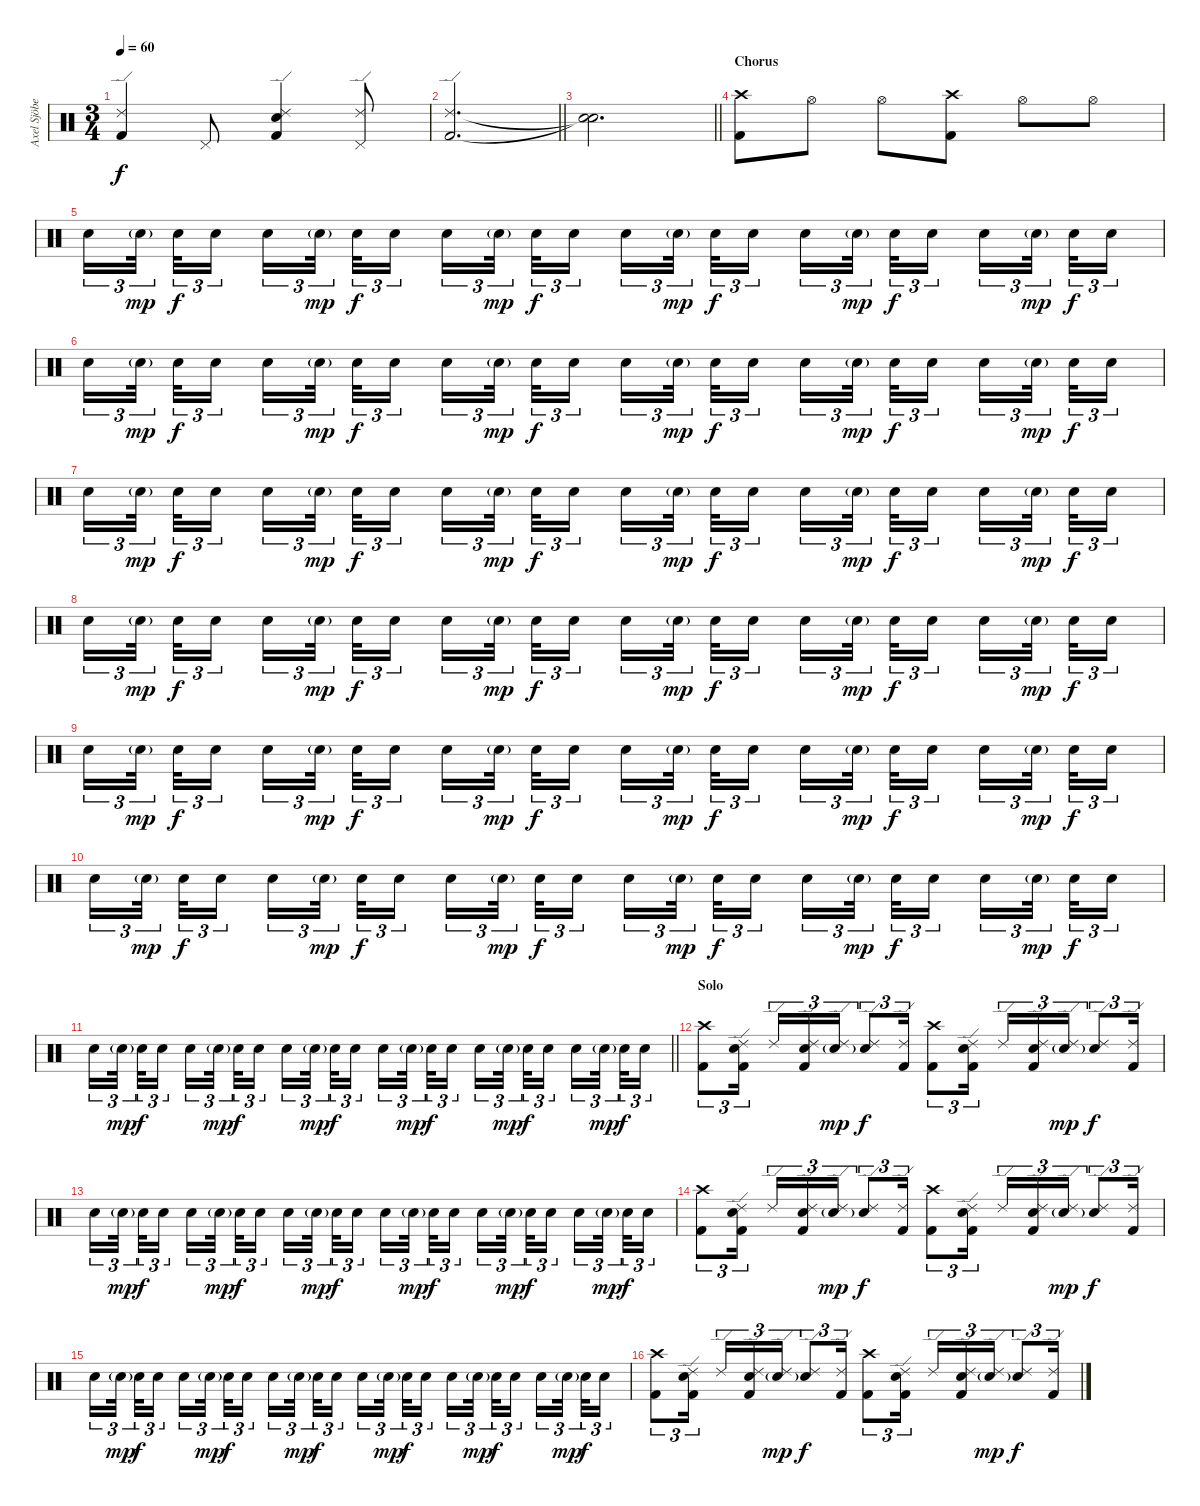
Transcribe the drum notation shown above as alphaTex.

\track ("Axel Sjöberg " "Axel Sjöbe") {instrument percussion}
\staff {score}
\articulation defaults
\ts (3 4)
\tempo 60
\clef neutral
\ks c
("Kick (hit) 2" "Ride (edge) 2").4{dy f} "Pedal Hi-Hat (hit)".8 ("Kick (hit) 2" "Snare (hit) 2" "Ride (edge) 2").4 ("Ride (edge) 2" "Pedal Hi-Hat (hit)").8 |
\barLineRight lightlight
("Kick (hit) 2" "Ride (edge) 2").2{d} |
\barLineRight lightlight
("Snare (hit)"{t} "Snare (hit)"{t}).2{d} |
\section ("" "Chorus")
("Kick (hit) 2" "Crash high (hit)").8 "Hi-Hat (open)".8 "Hi-Hat (open)".8 ("Kick (hit) 2" "Crash high (hit)").8 "Hi-Hat (open)".8 "Hi-Hat (open)".8 |
"Snare (hit) 2".16{tu (3 2)} "Snare (hit) 2"{g}.32{tu (3 2) dy mp beam splitsecondary} "Snare (hit) 2".32{tu (3 2) dy f} "Snare (hit) 2".16{tu (3 2) beam splitsecondary} "Snare (hit) 2".16{tu (3 2)} "Snare (hit) 2"{g}.32{tu (3 2) dy mp beam splitsecondary} "Snare (hit) 2".32{tu (3 2) dy f} "Snare (hit) 2".16{tu (3 2)} "Snare (hit) 2".16{tu (3 2)} "Snare (hit) 2"{g}.32{tu (3 2) dy mp beam splitsecondary} "Snare (hit) 2".32{tu (3 2) dy f} "Snare (hit) 2".16{tu (3 2) beam splitsecondary} "Snare (hit) 2".16{tu (3 2)} "Snare (hit) 2"{g}.32{tu (3 2) dy mp beam splitsecondary} "Snare (hit) 2".32{tu (3 2) dy f} "Snare (hit) 2".16{tu (3 2)} "Snare (hit) 2".16{tu (3 2)} "Snare (hit) 2"{g}.32{tu (3 2) dy mp beam splitsecondary} "Snare (hit) 2".32{tu (3 2) dy f} "Snare (hit) 2".16{tu (3 2) beam splitsecondary} "Snare (hit) 2".16{tu (3 2)} "Snare (hit) 2"{g}.32{tu (3 2) dy mp beam splitsecondary} "Snare (hit) 2".32{tu (3 2) dy f} "Snare (hit) 2".16{tu (3 2)} |
"Snare (hit) 2".16{tu (3 2)} "Snare (hit) 2"{g}.32{tu (3 2) dy mp beam splitsecondary} "Snare (hit) 2".32{tu (3 2) dy f} "Snare (hit) 2".16{tu (3 2) beam splitsecondary} "Snare (hit) 2".16{tu (3 2)} "Snare (hit) 2"{g}.32{tu (3 2) dy mp beam splitsecondary} "Snare (hit) 2".32{tu (3 2) dy f} "Snare (hit) 2".16{tu (3 2)} "Snare (hit) 2".16{tu (3 2)} "Snare (hit) 2"{g}.32{tu (3 2) dy mp beam splitsecondary} "Snare (hit) 2".32{tu (3 2) dy f} "Snare (hit) 2".16{tu (3 2) beam splitsecondary} "Snare (hit) 2".16{tu (3 2)} "Snare (hit) 2"{g}.32{tu (3 2) dy mp beam splitsecondary} "Snare (hit) 2".32{tu (3 2) dy f} "Snare (hit) 2".16{tu (3 2)} "Snare (hit) 2".16{tu (3 2)} "Snare (hit) 2"{g}.32{tu (3 2) dy mp beam splitsecondary} "Snare (hit) 2".32{tu (3 2) dy f} "Snare (hit) 2".16{tu (3 2) beam splitsecondary} "Snare (hit) 2".16{tu (3 2)} "Snare (hit) 2"{g}.32{tu (3 2) dy mp beam splitsecondary} "Snare (hit) 2".32{tu (3 2) dy f} "Snare (hit) 2".16{tu (3 2)} |
"Snare (hit) 2".16{tu (3 2)} "Snare (hit) 2"{g}.32{tu (3 2) dy mp beam splitsecondary} "Snare (hit) 2".32{tu (3 2) dy f} "Snare (hit) 2".16{tu (3 2) beam splitsecondary} "Snare (hit) 2".16{tu (3 2)} "Snare (hit) 2"{g}.32{tu (3 2) dy mp beam splitsecondary} "Snare (hit) 2".32{tu (3 2) dy f} "Snare (hit) 2".16{tu (3 2)} "Snare (hit) 2".16{tu (3 2)} "Snare (hit) 2"{g}.32{tu (3 2) dy mp beam splitsecondary} "Snare (hit) 2".32{tu (3 2) dy f} "Snare (hit) 2".16{tu (3 2) beam splitsecondary} "Snare (hit) 2".16{tu (3 2)} "Snare (hit) 2"{g}.32{tu (3 2) dy mp beam splitsecondary} "Snare (hit) 2".32{tu (3 2) dy f} "Snare (hit) 2".16{tu (3 2)} "Snare (hit) 2".16{tu (3 2)} "Snare (hit) 2"{g}.32{tu (3 2) dy mp beam splitsecondary} "Snare (hit) 2".32{tu (3 2) dy f} "Snare (hit) 2".16{tu (3 2) beam splitsecondary} "Snare (hit) 2".16{tu (3 2)} "Snare (hit) 2"{g}.32{tu (3 2) dy mp beam splitsecondary} "Snare (hit) 2".32{tu (3 2) dy f} "Snare (hit) 2".16{tu (3 2)} |
"Snare (hit) 2".16{tu (3 2)} "Snare (hit) 2"{g}.32{tu (3 2) dy mp beam splitsecondary} "Snare (hit) 2".32{tu (3 2) dy f} "Snare (hit) 2".16{tu (3 2) beam splitsecondary} "Snare (hit) 2".16{tu (3 2)} "Snare (hit) 2"{g}.32{tu (3 2) dy mp beam splitsecondary} "Snare (hit) 2".32{tu (3 2) dy f} "Snare (hit) 2".16{tu (3 2)} "Snare (hit) 2".16{tu (3 2)} "Snare (hit) 2"{g}.32{tu (3 2) dy mp beam splitsecondary} "Snare (hit) 2".32{tu (3 2) dy f} "Snare (hit) 2".16{tu (3 2) beam splitsecondary} "Snare (hit) 2".16{tu (3 2)} "Snare (hit) 2"{g}.32{tu (3 2) dy mp beam splitsecondary} "Snare (hit) 2".32{tu (3 2) dy f} "Snare (hit) 2".16{tu (3 2)} "Snare (hit) 2".16{tu (3 2)} "Snare (hit) 2"{g}.32{tu (3 2) dy mp beam splitsecondary} "Snare (hit) 2".32{tu (3 2) dy f} "Snare (hit) 2".16{tu (3 2) beam splitsecondary} "Snare (hit) 2".16{tu (3 2)} "Snare (hit) 2"{g}.32{tu (3 2) dy mp beam splitsecondary} "Snare (hit) 2".32{tu (3 2) dy f} "Snare (hit) 2".16{tu (3 2)} |
"Snare (hit) 2".16{tu (3 2)} "Snare (hit) 2"{g}.32{tu (3 2) dy mp beam splitsecondary} "Snare (hit) 2".32{tu (3 2) dy f} "Snare (hit) 2".16{tu (3 2) beam splitsecondary} "Snare (hit) 2".16{tu (3 2)} "Snare (hit) 2"{g}.32{tu (3 2) dy mp beam splitsecondary} "Snare (hit) 2".32{tu (3 2) dy f} "Snare (hit) 2".16{tu (3 2)} "Snare (hit) 2".16{tu (3 2)} "Snare (hit) 2"{g}.32{tu (3 2) dy mp beam splitsecondary} "Snare (hit) 2".32{tu (3 2) dy f} "Snare (hit) 2".16{tu (3 2) beam splitsecondary} "Snare (hit) 2".16{tu (3 2)} "Snare (hit) 2"{g}.32{tu (3 2) dy mp beam splitsecondary} "Snare (hit) 2".32{tu (3 2) dy f} "Snare (hit) 2".16{tu (3 2)} "Snare (hit) 2".16{tu (3 2)} "Snare (hit) 2"{g}.32{tu (3 2) dy mp beam splitsecondary} "Snare (hit) 2".32{tu (3 2) dy f} "Snare (hit) 2".16{tu (3 2) beam splitsecondary} "Snare (hit) 2".16{tu (3 2)} "Snare (hit) 2"{g}.32{tu (3 2) dy mp beam splitsecondary} "Snare (hit) 2".32{tu (3 2) dy f} "Snare (hit) 2".16{tu (3 2)} |
"Snare (hit) 2".16{tu (3 2)} "Snare (hit) 2"{g}.32{tu (3 2) dy mp beam splitsecondary} "Snare (hit) 2".32{tu (3 2) dy f} "Snare (hit) 2".16{tu (3 2) beam splitsecondary} "Snare (hit) 2".16{tu (3 2)} "Snare (hit) 2"{g}.32{tu (3 2) dy mp beam splitsecondary} "Snare (hit) 2".32{tu (3 2) dy f} "Snare (hit) 2".16{tu (3 2)} "Snare (hit) 2".16{tu (3 2)} "Snare (hit) 2"{g}.32{tu (3 2) dy mp beam splitsecondary} "Snare (hit) 2".32{tu (3 2) dy f} "Snare (hit) 2".16{tu (3 2) beam splitsecondary} "Snare (hit) 2".16{tu (3 2)} "Snare (hit) 2"{g}.32{tu (3 2) dy mp beam splitsecondary} "Snare (hit) 2".32{tu (3 2) dy f} "Snare (hit) 2".16{tu (3 2)} "Snare (hit) 2".16{tu (3 2)} "Snare (hit) 2"{g}.32{tu (3 2) dy mp beam splitsecondary} "Snare (hit) 2".32{tu (3 2) dy f} "Snare (hit) 2".16{tu (3 2) beam splitsecondary} "Snare (hit) 2".16{tu (3 2)} "Snare (hit) 2"{g}.32{tu (3 2) dy mp beam splitsecondary} "Snare (hit) 2".32{tu (3 2) dy f} "Snare (hit) 2".16{tu (3 2)} |
\barLineRight lightlight "Snare (hit) 2".16{tu (3 2)} "Snare (hit) 2"{g}.32{tu (3 2) dy mp beam splitsecondary} "Snare (hit) 2".32{tu (3 2) dy f} "Snare (hit) 2".16{tu (3 2) beam splitsecondary} "Snare (hit) 2".16{tu (3 2)} "Snare (hit) 2"{g}.32{tu (3 2) dy mp beam splitsecondary} "Snare (hit) 2".32{tu (3 2) dy f} "Snare (hit) 2".16{tu (3 2)} "Snare (hit) 2".16{tu (3 2)} "Snare (hit) 2"{g}.32{tu (3 2) dy mp beam splitsecondary} "Snare (hit) 2".32{tu (3 2) dy f} "Snare (hit) 2".16{tu (3 2) beam splitsecondary} "Snare (hit) 2".16{tu (3 2)} "Snare (hit) 2"{g}.32{tu (3 2) dy mp beam splitsecondary} "Snare (hit) 2".32{tu (3 2) dy f} "Snare (hit) 2".16{tu (3 2)} "Snare (hit) 2".16{tu (3 2)} "Snare (hit) 2"{g}.32{tu (3 2) dy mp beam splitsecondary} "Snare (hit) 2".32{tu (3 2) dy f} "Snare (hit) 2".16{tu (3 2) beam splitsecondary} "Snare (hit) 2".16{tu (3 2)} "Snare (hit) 2"{g}.32{tu (3 2) dy mp beam splitsecondary} "Snare (hit) 2".32{tu (3 2) dy f} "Snare (hit) 2".16{tu (3 2)}
|
\section ("" "Solo")
("Kick (hit) 2" "Crash high (hit)").8{tu (3 2)} ("Kick (hit) 2" "Snare (hit) 2" "Ride (edge) 2").16{tu (3 2) beam splitsecondary} "Ride (edge) 2".16{tu (3 2)} ("Kick (hit) 2" "Snare (hit) 2" "Ride (edge) 2").16{tu (3 2)} ("Snare (hit) 2"{g} "Ride (edge) 2").16{tu (3 2) dy mp} ("Snare (hit) 2" "Ride (edge) 2").8{tu (3 2) dy f} ("Kick (hit) 2" "Ride (edge) 2").16{tu (3 2)} ("Kick (hit) 2" "Crash high (hit)").8{tu (3 2)} ("Kick (hit) 2" "Snare (hit) 2" "Ride (edge) 2").16{tu (3 2)} "Ride (edge) 2".16{tu (3 2)} ("Kick (hit) 2" "Snare (hit) 2" "Ride (edge) 2").16{tu (3 2)} ("Snare (hit) 2"{g} "Ride (edge) 2").16{tu (3 2) dy mp} ("Snare (hit) 2" "Ride (edge) 2").8{tu (3 2) dy f} ("Kick (hit) 2" "Ride (edge) 2").16{tu (3 2)} |
"Snare (hit) 2".16{tu (3 2)} "Snare (hit) 2"{g}.32{tu (3 2) dy mp beam splitsecondary} "Snare (hit) 2".32{tu (3 2) dy f} "Snare (hit) 2".16{tu (3 2) beam splitsecondary} "Snare (hit) 2".16{tu (3 2)} "Snare (hit) 2"{g}.32{tu (3 2) dy mp beam splitsecondary} "Snare (hit) 2".32{tu (3 2) dy f} "Snare (hit) 2".16{tu (3 2)} "Snare (hit) 2".16{tu (3 2)} "Snare (hit) 2"{g}.32{tu (3 2) dy mp beam splitsecondary} "Snare (hit) 2".32{tu (3 2) dy f} "Snare (hit) 2".16{tu (3 2) beam splitsecondary} "Snare (hit) 2".16{tu (3 2)} "Snare (hit) 2"{g}.32{tu (3 2) dy mp beam splitsecondary} "Snare (hit) 2".32{tu (3 2) dy f} "Snare (hit) 2".16{tu (3 2)} "Snare (hit) 2".16{tu (3 2)} "Snare (hit) 2"{g}.32{tu (3 2) dy mp beam splitsecondary} "Snare (hit) 2".32{tu (3 2) dy f} "Snare (hit) 2".16{tu (3 2) beam splitsecondary} "Snare (hit) 2".16{tu (3 2)} "Snare (hit) 2"{g}.32{tu (3 2) dy mp beam splitsecondary} "Snare (hit) 2".32{tu (3 2) dy f} "Snare (hit) 2".16{tu (3 2)} |
("Kick (hit) 2" "Crash high (hit)").8{tu (3 2)} ("Kick (hit) 2" "Snare (hit) 2" "Ride (edge) 2").16{tu (3 2) beam splitsecondary} "Ride (edge) 2".16{tu (3 2)} ("Kick (hit) 2" "Snare (hit) 2" "Ride (edge) 2").16{tu (3 2)} ("Snare (hit) 2"{g} "Ride (edge) 2").16{tu (3 2) dy mp} ("Snare (hit) 2" "Ride (edge) 2").8{tu (3 2) dy f} ("Kick (hit) 2" "Ride (edge) 2").16{tu (3 2)} ("Kick (hit) 2" "Crash high (hit)").8{tu (3 2)} ("Kick (hit) 2" "Snare (hit) 2" "Ride (edge) 2").16{tu (3 2)} "Ride (edge) 2".16{tu (3 2)} ("Kick (hit) 2" "Snare (hit) 2" "Ride (edge) 2").16{tu (3 2)} ("Snare (hit) 2"{g} "Ride (edge) 2").16{tu (3 2) dy mp} ("Snare (hit) 2" "Ride (edge) 2").8{tu (3 2) dy f} ("Kick (hit) 2" "Ride (edge) 2").16{tu (3 2)} |
"Snare (hit) 2".16{tu (3 2)} "Snare (hit) 2"{g}.32{tu (3 2) dy mp beam splitsecondary} "Snare (hit) 2".32{tu (3 2) dy f} "Snare (hit) 2".16{tu (3 2) beam splitsecondary} "Snare (hit) 2".16{tu (3 2)} "Snare (hit) 2"{g}.32{tu (3 2) dy mp beam splitsecondary} "Snare (hit) 2".32{tu (3 2) dy f} "Snare (hit) 2".16{tu (3 2)} "Snare (hit) 2".16{tu (3 2)} "Snare (hit) 2"{g}.32{tu (3 2) dy mp beam splitsecondary} "Snare (hit) 2".32{tu (3 2) dy f} "Snare (hit) 2".16{tu (3 2) beam splitsecondary} "Snare (hit) 2".16{tu (3 2)} "Snare (hit) 2"{g}.32{tu (3 2) dy mp beam splitsecondary} "Snare (hit) 2".32{tu (3 2) dy f} "Snare (hit) 2".16{tu (3 2)} "Snare (hit) 2".16{tu (3 2)} "Snare (hit) 2"{g}.32{tu (3 2) dy mp beam splitsecondary} "Snare (hit) 2".32{tu (3 2) dy f} "Snare (hit) 2".16{tu (3 2) beam splitsecondary} "Snare (hit) 2".16{tu (3 2)} "Snare (hit) 2"{g}.32{tu (3 2) dy mp beam splitsecondary} "Snare (hit) 2".32{tu (3 2) dy f} "Snare (hit) 2".16{tu (3 2)} |
("Kick (hit) 2" "Crash high (hit)").8{tu (3 2)} ("Kick (hit) 2" "Snare (hit) 2" "Ride (edge) 2").16{tu (3 2) beam splitsecondary} "Ride (edge) 2".16{tu (3 2)} ("Kick (hit) 2" "Snare (hit) 2" "Ride (edge) 2").16{tu (3 2)} ("Snare (hit) 2"{g} "Ride (edge) 2").16{tu (3 2) dy mp} ("Snare (hit) 2" "Ride (edge) 2").8{tu (3 2) dy f} ("Kick (hit) 2" "Ride (edge) 2").16{tu (3 2)} ("Kick (hit) 2" "Crash high (hit)").8{tu (3 2)} ("Kick (hit) 2" "Snare (hit) 2" "Ride (edge) 2").16{tu (3 2)} "Ride (edge) 2".16{tu (3 2)} ("Kick (hit) 2" "Snare (hit) 2" "Ride (edge) 2").16{tu (3 2)} ("Snare (hit) 2"{g} "Ride (edge) 2").16{tu (3 2) dy mp} ("Snare (hit) 2" "Ride (edge) 2").8{tu (3 2) dy f} ("Kick (hit) 2" "Ride (edge) 2").16{tu (3 2)}
